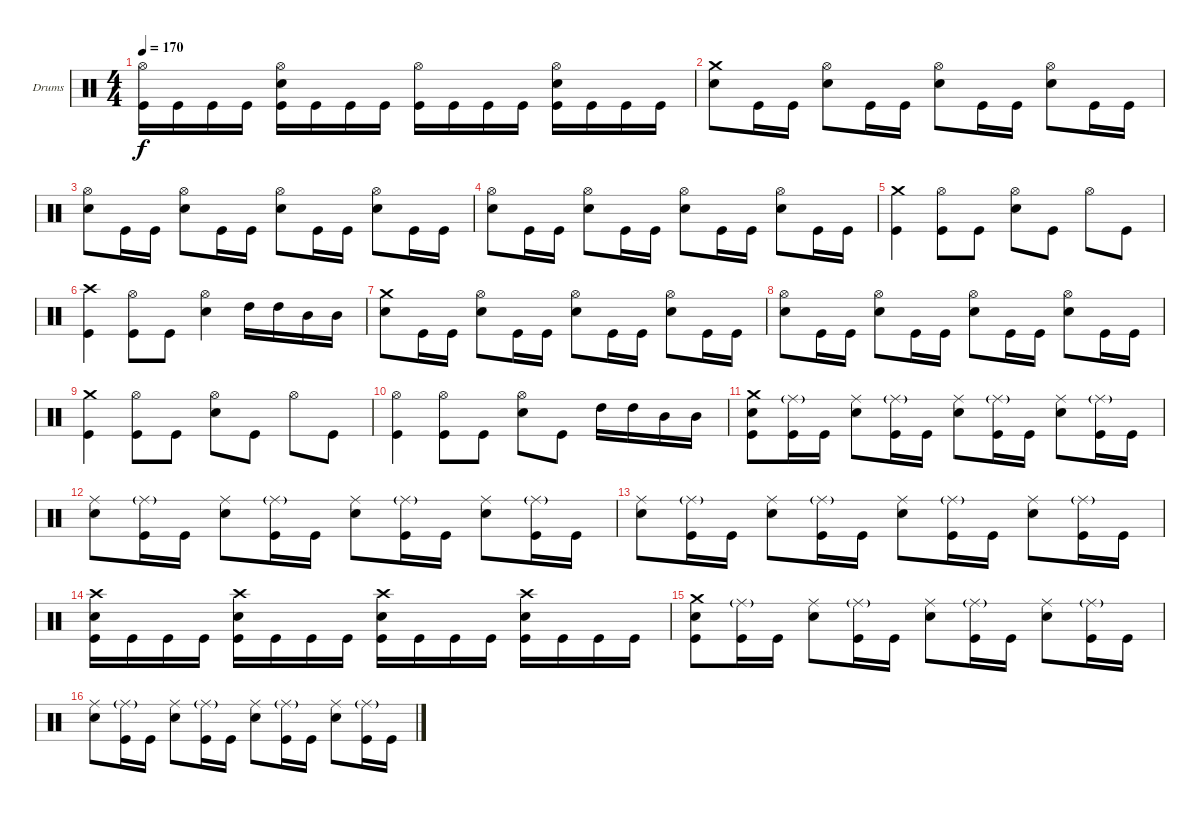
\bracketExtendMode groupsimilarinstruments
\firstSystemTrackNameOrientation horizontal
\otherSystemsTrackNameOrientation horizontal
\track ("Дмитрий Кривенков" "Drums") {instrument percussion}
\staff {score}
\articulation defaults
\ts (4 4)
\tempo 170
\clef neutral
\ks c
("Hi-Hat (open)" "Kick (hit)").16{dy f} "Kick (hit)".16 "Kick (hit)".16 "Kick (hit)".16 ("Hi-Hat (open)" "Snare (hit) 2" "Kick (hit)").16 "Kick (hit)".16 "Kick (hit)".16 "Kick (hit)".16 ("Hi-Hat (open)" "Kick (hit)").16 "Kick (hit)".16 "Kick (hit)".16 "Kick (hit)".16 ("Hi-Hat (open)" "Snare (hit) 2" "Kick (hit)").16 "Kick (hit)".16 "Kick (hit)".16 "Kick (hit)".16 |
("Crash medium (hit)" "Snare (hit) 2").8 "Kick (hit)".16 "Kick (hit)".16 ("Hi-Hat (open)" "Snare (hit) 2").8 "Kick (hit)".16 "Kick (hit)".16 ("Hi-Hat (open)" "Snare (hit) 2").8 "Kick (hit)".16 "Kick (hit)".16 ("Hi-Hat (open)" "Snare (hit) 2").8 "Kick (hit)".16 "Kick (hit)".16 |
("Hi-Hat (open)" "Snare (hit) 2").8 "Kick (hit)".16 "Kick (hit)".16 ("Hi-Hat (open)" "Snare (hit) 2").8 "Kick (hit)".16 "Kick (hit)".16 ("Hi-Hat (open)" "Snare (hit) 2").8 "Kick (hit)".16 "Kick (hit)".16 ("Hi-Hat (open)" "Snare (hit) 2").8 "Kick (hit)".16 "Kick (hit)".16 |
("Hi-Hat (open)" "Snare (hit) 2").8 "Kick (hit)".16 "Kick (hit)".16 ("Hi-Hat (open)" "Snare (hit) 2").8 "Kick (hit)".16 "Kick (hit)".16 ("Hi-Hat (open)" "Snare (hit) 2").8 "Kick (hit)".16 "Kick (hit)".16 ("Hi-Hat (open)" "Snare (hit) 2").8 "Kick (hit)".16 "Kick (hit)".16 |
("Crash medium (hit)" "Kick (hit)").4 ("Hi-Hat (open)" "Kick (hit)").8 "Kick (hit)".8 ("Hi-Hat (open)" "Snare (hit) 2").8 "Kick (hit)".8 "Hi-Hat (open)".8 "Kick (hit)".8 |
("Crash high (hit)" "Kick (hit)").4 ("Hi-Hat (open)" "Kick (hit)").8 "Kick (hit)".8 ("Hi-Hat (open)" "Snare (hit) 2").4 "High Tom (hit)".16 "High Tom (hit)".16 "Mid Tom (hit)".16 "Mid Tom (hit)".16 |
("Crash medium (hit)" "Snare (hit) 2").8 "Kick (hit)".16 "Kick (hit)".16 ("Hi-Hat (open)" "Snare (hit) 2").8 "Kick (hit)".16 "Kick (hit)".16 ("Hi-Hat (open)" "Snare (hit) 2").8 "Kick (hit)".16 "Kick (hit)".16 ("Hi-Hat (open)" "Snare (hit) 2").8 "Kick (hit)".16 "Kick (hit)".16 |
("Hi-Hat (open)" "Snare (hit) 2").8 "Kick (hit)".16 "Kick (hit)".16 ("Hi-Hat (open)" "Snare (hit) 2").8 "Kick (hit)".16 "Kick (hit)".16 ("Hi-Hat (open)" "Snare (hit) 2").8 "Kick (hit)".16 "Kick (hit)".16 ("Hi-Hat (open)" "Snare (hit) 2").8 "Kick (hit)".16 "Kick (hit)".16 |
("Crash medium (hit)" "Kick (hit)").4 ("Hi-Hat (open)" "Kick (hit)").8 "Kick (hit)".8 ("Hi-Hat (open)" "Snare (hit) 2").8 "Kick (hit)".8 "Hi-Hat (open)".8 "Kick (hit)".8 |
("Hi-Hat (open)" "Kick (hit)").4 ("Hi-Hat (open)" "Kick (hit)").8 "Kick (hit)".8 ("Hi-Hat (open)" "Snare (hit) 2").8 "Kick (hit)".8 "High Tom (hit)".16 "High Tom (hit)".16 "Mid Tom (hit)".16 "Mid Tom (hit)".16 |
("Crash medium (hit)" "Snare (hit) 2" "Kick (hit)").8 ("Ride (middle)"{g} "Kick (hit)").16 "Kick (hit)".16 ("Ride (middle)" "Snare (hit) 2").8 ("Ride (middle)"{g} "Kick (hit)").16 "Kick (hit)".16 ("Ride (middle)" "Snare (hit) 2").8 ("Ride (middle)"{g} "Kick (hit)").16 "Kick (hit)".16 ("Ride (middle)" "Snare (hit) 2").8 ("Ride (middle)"{g} "Kick (hit)").16 "Kick (hit)".16 |
("Ride (middle)" "Snare (hit) 2").8 ("Ride (middle)"{g} "Kick (hit)").16 "Kick (hit)".16 ("Ride (middle)" "Snare (hit) 2").8 ("Ride (middle)"{g} "Kick (hit)").16 "Kick (hit)".16 ("Ride (middle)" "Snare (hit) 2").8 ("Ride (middle)"{g} "Kick (hit)").16 "Kick (hit)".16 ("Ride (middle)" "Snare (hit) 2").8 ("Ride (middle)"{g} "Kick (hit)").16 "Kick (hit)".16 |
("Ride (middle)" "Snare (hit) 2").8 ("Ride (middle)"{g} "Kick (hit)").16 "Kick (hit)".16 ("Ride (middle)" "Snare (hit) 2").8 ("Ride (middle)"{g} "Kick (hit)").16 "Kick (hit)".16 ("Ride (middle)" "Snare (hit) 2").8 ("Ride (middle)"{g} "Kick (hit)").16 "Kick (hit)".16 ("Ride (middle)" "Snare (hit) 2").8 ("Ride (middle)"{g} "Kick (hit)").16 "Kick (hit)".16 |
("Crash high (hit)" "Snare (hit) 2" "Kick (hit)").16 "Kick (hit)".16 "Kick (hit)".16 "Kick (hit)".16 ("Crash high (hit)" "Snare (hit) 2" "Kick (hit)").16 "Kick (hit)".16 "Kick (hit)".16 "Kick (hit)".16 ("Crash high (hit)" "Snare (hit) 2" "Kick (hit)").16 "Kick (hit)".16 "Kick (hit)".16 "Kick (hit)".16 ("Crash high (hit)" "Snare (hit) 2" "Kick (hit)").16 "Kick (hit)".16 "Kick (hit)".16 "Kick (hit)".16 |
("Crash medium (hit)" "Snare (hit) 2" "Kick (hit)").8 ("Ride (middle)"{g} "Kick (hit)").16 "Kick (hit)".16 ("Ride (middle)" "Snare (hit) 2").8 ("Ride (middle)"{g} "Kick (hit)").16 "Kick (hit)".16 ("Ride (middle)" "Snare (hit) 2").8 ("Ride (middle)"{g} "Kick (hit)").16 "Kick (hit)".16 ("Ride (middle)" "Snare (hit) 2").8 ("Ride (middle)"{g} "Kick (hit)").16 "Kick (hit)".16 |
("Ride (middle)" "Snare (hit) 2").8 ("Ride (middle)"{g} "Kick (hit)").16 "Kick (hit)".16 ("Ride (middle)" "Snare (hit) 2").8 ("Ride (middle)"{g} "Kick (hit)").16 "Kick (hit)".16 ("Ride (middle)" "Snare (hit) 2").8 ("Ride (middle)"{g} "Kick (hit)").16 "Kick (hit)".16 ("Ride (middle)" "Snare (hit) 2").8 ("Ride (middle)"{g} "Kick (hit)").16 "Kick (hit)".16
